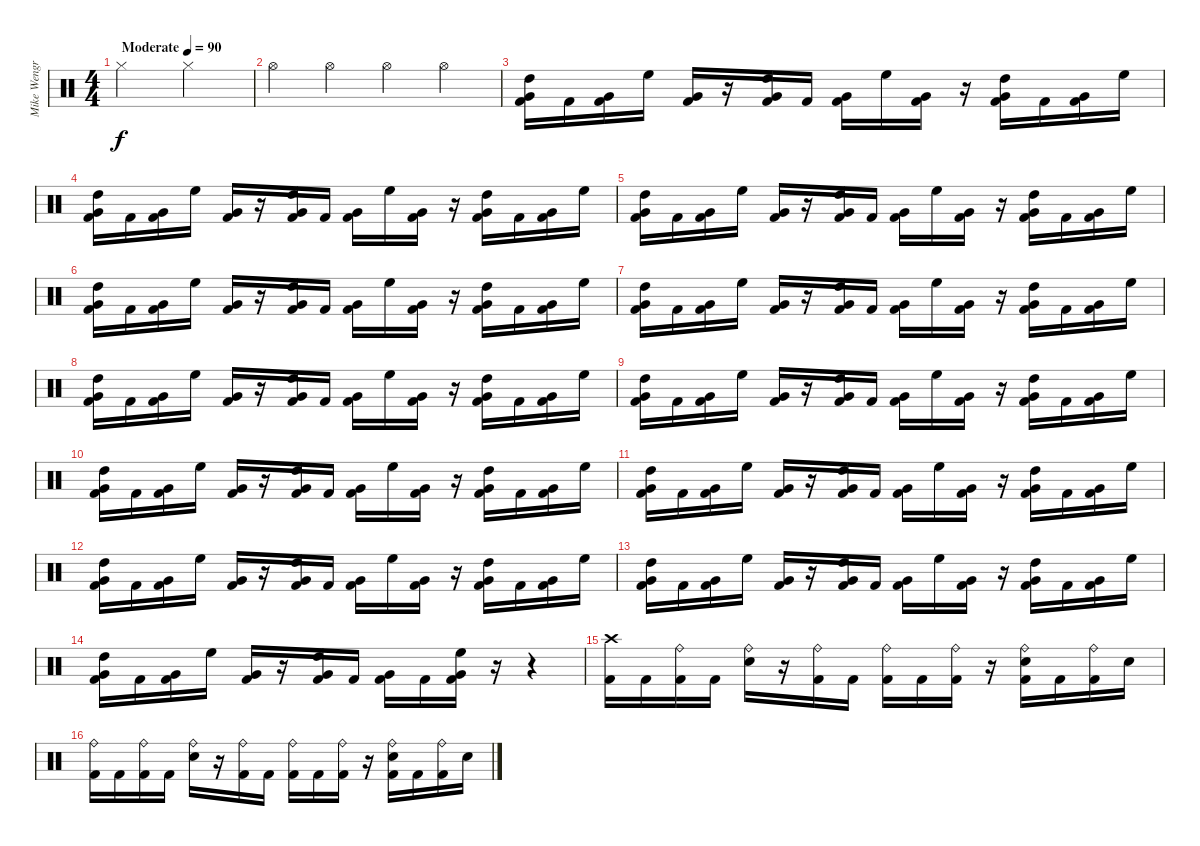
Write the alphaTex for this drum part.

\track ("Mike Wengren - Drums" "Mike Wengr") {instrument percussion}
\staff {score}
\articulation defaults
\ts (4 4)
\tempo (90 "Moderate")
\clef neutral
\ks c "Hi-Hat (closed)".2{dy f} "Hi-Hat (closed)".2
|
"Hi-Hat (open)".4 "Hi-Hat (open)".4 "Hi-Hat (open)".4 "Hi-Hat (open)".4 |
("Very Low Tom (hit)" "High Tom (hit)" "Kick (hit) 2").16 "Kick (hit) 2".16 ("Very Low Tom (hit)" "Kick (hit) 2").16 "High Floor Tom (hit)".16 ("Very Low Tom (hit)" "Kick (hit) 2").16 r.16 ("Very Low Tom (hit)" "High Tom (hit)" "Kick (hit) 2").16 "Kick (hit) 2".16 ("Very Low Tom (hit)" "Kick (hit) 2").16 "High Floor Tom (hit)".16 ("Very Low Tom (hit)" "Kick (hit) 2").16 r.16 ("Very Low Tom (hit)" "High Tom (hit)" "Kick (hit) 2").16 "Kick (hit) 2".16 ("Very Low Tom (hit)" "Kick (hit) 2").16 "High Floor Tom (hit)".16 |
("Very Low Tom (hit)" "High Tom (hit)" "Kick (hit) 2").16 "Kick (hit) 2".16 ("Very Low Tom (hit)" "Kick (hit) 2").16 "High Floor Tom (hit)".16 ("Very Low Tom (hit)" "Kick (hit) 2").16 r.16 ("Very Low Tom (hit)" "High Tom (hit)" "Kick (hit) 2").16 "Kick (hit) 2".16 ("Very Low Tom (hit)" "Kick (hit) 2").16 "High Floor Tom (hit)".16 ("Very Low Tom (hit)" "Kick (hit) 2").16 r.16 ("Very Low Tom (hit)" "High Tom (hit)" "Kick (hit) 2").16 "Kick (hit) 2".16 ("Very Low Tom (hit)" "Kick (hit) 2").16 "High Floor Tom (hit)".16 |
("Very Low Tom (hit)" "High Tom (hit)" "Kick (hit) 2").16 "Kick (hit) 2".16 ("Very Low Tom (hit)" "Kick (hit) 2").16 "High Floor Tom (hit)".16 ("Very Low Tom (hit)" "Kick (hit) 2").16 r.16 ("Very Low Tom (hit)" "High Tom (hit)" "Kick (hit) 2").16 "Kick (hit) 2".16 ("Very Low Tom (hit)" "Kick (hit) 2").16 "High Floor Tom (hit)".16 ("Very Low Tom (hit)" "Kick (hit) 2").16 r.16 ("Very Low Tom (hit)" "High Tom (hit)" "Kick (hit) 2").16 "Kick (hit) 2".16 ("Very Low Tom (hit)" "Kick (hit) 2").16 "High Floor Tom (hit)".16 |
("Very Low Tom (hit)" "High Tom (hit)" "Kick (hit) 2").16 "Kick (hit) 2".16 ("Very Low Tom (hit)" "Kick (hit) 2").16 "High Floor Tom (hit)".16 ("Very Low Tom (hit)" "Kick (hit) 2").16 r.16 ("Very Low Tom (hit)" "High Tom (hit)" "Kick (hit) 2").16 "Kick (hit) 2".16 ("Very Low Tom (hit)" "Kick (hit) 2").16 "High Floor Tom (hit)".16 ("Very Low Tom (hit)" "Kick (hit) 2").16 r.16 ("Very Low Tom (hit)" "High Tom (hit)" "Kick (hit) 2").16 "Kick (hit) 2".16 ("Very Low Tom (hit)" "Kick (hit) 2").16 "High Floor Tom (hit)".16 |
("Very Low Tom (hit)" "High Tom (hit)" "Kick (hit) 2").16 "Kick (hit) 2".16 ("Very Low Tom (hit)" "Kick (hit) 2").16 "High Floor Tom (hit)".16 ("Very Low Tom (hit)" "Kick (hit) 2").16 r.16 ("Very Low Tom (hit)" "High Tom (hit)" "Kick (hit) 2").16 "Kick (hit) 2".16 ("Very Low Tom (hit)" "Kick (hit) 2").16 "High Floor Tom (hit)".16 ("Very Low Tom (hit)" "Kick (hit) 2").16 r.16 ("Very Low Tom (hit)" "High Tom (hit)" "Kick (hit) 2").16 "Kick (hit) 2".16 ("Very Low Tom (hit)" "Kick (hit) 2").16 "High Floor Tom (hit)".16 |
("Very Low Tom (hit)" "High Tom (hit)" "Kick (hit) 2").16 "Kick (hit) 2".16 ("Very Low Tom (hit)" "Kick (hit) 2").16 "High Floor Tom (hit)".16 ("Very Low Tom (hit)" "Kick (hit) 2").16 r.16 ("Very Low Tom (hit)" "High Tom (hit)" "Kick (hit) 2").16 "Kick (hit) 2".16 ("Very Low Tom (hit)" "Kick (hit) 2").16 "High Floor Tom (hit)".16 ("Very Low Tom (hit)" "Kick (hit) 2").16 r.16 ("Very Low Tom (hit)" "High Tom (hit)" "Kick (hit) 2").16 "Kick (hit) 2".16 ("Very Low Tom (hit)" "Kick (hit) 2").16 "High Floor Tom (hit)".16 |
("Very Low Tom (hit)" "High Tom (hit)" "Kick (hit) 2").16 "Kick (hit) 2".16 ("Very Low Tom (hit)" "Kick (hit) 2").16 "High Floor Tom (hit)".16 ("Very Low Tom (hit)" "Kick (hit) 2").16 r.16 ("Very Low Tom (hit)" "High Tom (hit)" "Kick (hit) 2").16 "Kick (hit) 2".16 ("Very Low Tom (hit)" "Kick (hit) 2").16 "High Floor Tom (hit)".16 ("Very Low Tom (hit)" "Kick (hit) 2").16 r.16 ("Very Low Tom (hit)" "High Tom (hit)" "Kick (hit) 2").16 "Kick (hit) 2".16 ("Very Low Tom (hit)" "Kick (hit) 2").16 "High Floor Tom (hit)".16 |
("Very Low Tom (hit)" "High Tom (hit)" "Kick (hit) 2").16 "Kick (hit) 2".16 ("Very Low Tom (hit)" "Kick (hit) 2").16 "High Floor Tom (hit)".16 ("Very Low Tom (hit)" "Kick (hit) 2").16 r.16 ("Very Low Tom (hit)" "High Tom (hit)" "Kick (hit) 2").16 "Kick (hit) 2".16 ("Very Low Tom (hit)" "Kick (hit) 2").16 "High Floor Tom (hit)".16 ("Very Low Tom (hit)" "Kick (hit) 2").16 r.16 ("Very Low Tom (hit)" "High Tom (hit)" "Kick (hit) 2").16 "Kick (hit) 2".16 ("Very Low Tom (hit)" "Kick (hit) 2").16 "High Floor Tom (hit)".16 |
("Very Low Tom (hit)" "High Tom (hit)" "Kick (hit) 2").16 "Kick (hit) 2".16 ("Very Low Tom (hit)" "Kick (hit) 2").16 "High Floor Tom (hit)".16 ("Very Low Tom (hit)" "Kick (hit) 2").16 r.16 ("Very Low Tom (hit)" "High Tom (hit)" "Kick (hit) 2").16 "Kick (hit) 2".16 ("Very Low Tom (hit)" "Kick (hit) 2").16 "High Floor Tom (hit)".16 ("Very Low Tom (hit)" "Kick (hit) 2").16 r.16 ("Very Low Tom (hit)" "High Tom (hit)" "Kick (hit) 2").16 "Kick (hit) 2".16 ("Very Low Tom (hit)" "Kick (hit) 2").16 "High Floor Tom (hit)".16 |
("Very Low Tom (hit)" "High Tom (hit)" "Kick (hit) 2").16 "Kick (hit) 2".16 ("Very Low Tom (hit)" "Kick (hit) 2").16 "High Floor Tom (hit)".16 ("Very Low Tom (hit)" "Kick (hit) 2").16 r.16 ("Very Low Tom (hit)" "High Tom (hit)" "Kick (hit) 2").16 "Kick (hit) 2".16 ("Very Low Tom (hit)" "Kick (hit) 2").16 "High Floor Tom (hit)".16 ("Very Low Tom (hit)" "Kick (hit) 2").16 r.16 ("Very Low Tom (hit)" "High Tom (hit)" "Kick (hit) 2").16 "Kick (hit) 2".16 ("Very Low Tom (hit)" "Kick (hit) 2").16 "High Floor Tom (hit)".16 |
("Very Low Tom (hit)" "High Tom (hit)" "Kick (hit) 2").16 "Kick (hit) 2".16 ("Very Low Tom (hit)" "Kick (hit) 2").16 "High Floor Tom (hit)".16 ("Very Low Tom (hit)" "Kick (hit) 2").16 r.16 ("Very Low Tom (hit)" "High Tom (hit)" "Kick (hit) 2").16 "Kick (hit) 2".16 ("Very Low Tom (hit)" "Kick (hit) 2").16 "High Floor Tom (hit)".16 ("Very Low Tom (hit)" "Kick (hit) 2").16 r.16 ("Very Low Tom (hit)" "High Tom (hit)" "Kick (hit) 2").16 "Kick (hit) 2".16 ("Very Low Tom (hit)" "Kick (hit) 2").16 "High Floor Tom (hit)".16 |
("Very Low Tom (hit)" "High Tom (hit)" "Kick (hit) 2").16 "Kick (hit) 2".16 ("Very Low Tom (hit)" "Kick (hit) 2").16 "High Floor Tom (hit)".16 ("Very Low Tom (hit)" "Kick (hit) 2").16 r.16 ("Very Low Tom (hit)" "High Tom (hit)" "Kick (hit) 2").16 "Kick (hit) 2".16 ("Very Low Tom (hit)" "Kick (hit) 2").16 "Kick (hit) 2".16 ("Very Low Tom (hit)" "High Floor Tom (hit)" "Kick (hit) 2").16 r.16 r.4 |
("Crash high (hit)" "Kick (hit) 2").16 "Kick (hit) 2".16 ("Ride (bell)" "Kick (hit) 2").16 "Kick (hit) 2".16 ("Ride (bell)" "Electric Snare (hit)").16 r.16 ("Ride (bell)" "Kick (hit) 2").16 "Kick (hit) 2".16 ("Ride (bell)" "Kick (hit) 2").16 "Kick (hit) 2".16 ("Ride (bell)" "Kick (hit) 2").16 r.16 ("Ride (bell)" "Electric Snare (hit)" "Kick (hit) 2").16 "Kick (hit) 2".16 ("Ride (bell)" "Kick (hit) 2").16 "Electric Snare (hit)".16 |
("Ride (bell)" "Kick (hit) 2").16 "Kick (hit) 2".16 ("Ride (bell)" "Kick (hit) 2").16 "Kick (hit) 2".16 ("Ride (bell)" "Electric Snare (hit)").16 r.16 ("Ride (bell)" "Kick (hit) 2").16 "Kick (hit) 2".16 ("Ride (bell)" "Kick (hit) 2").16 "Kick (hit) 2".16 ("Ride (bell)" "Kick (hit) 2").16 r.16 ("Ride (bell)" "Electric Snare (hit)" "Kick (hit) 2").16 "Kick (hit) 2".16 ("Ride (bell)" "Kick (hit) 2").16 "Electric Snare (hit)".16
